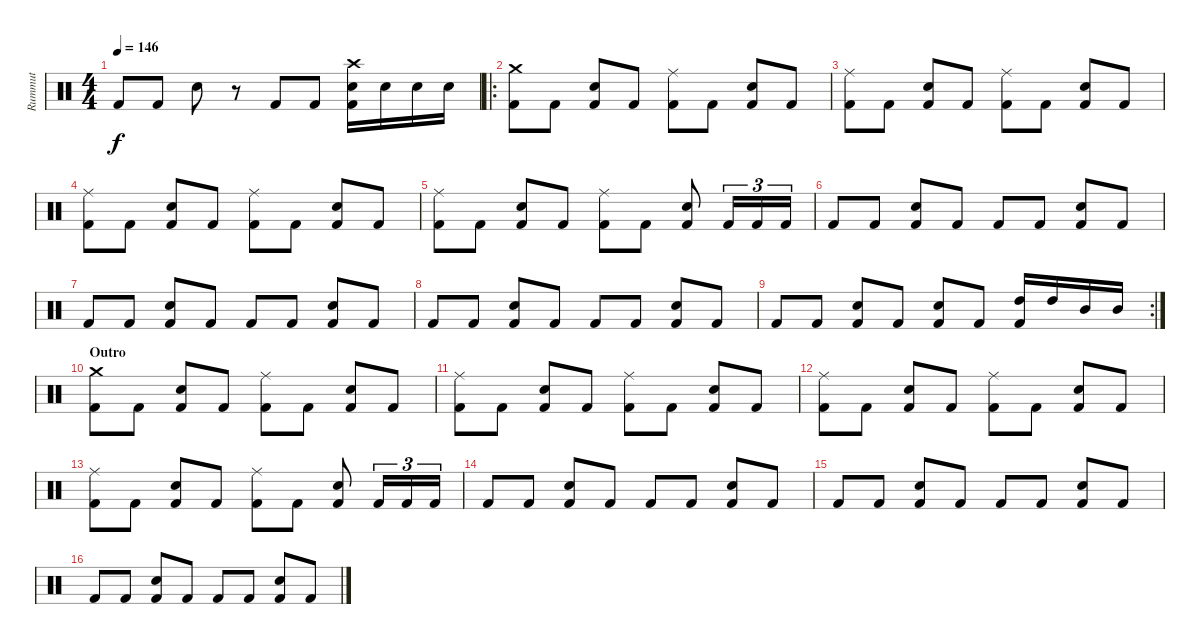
\track ("Rummut" "Rummut") {instrument percussion}
\staff {score}
\articulation defaults
\ts (4 4)
\tempo 146
\clef neutral
\ks c "Kick (hit) 2".8{dy f} "Kick (hit) 2".8 "Electric Snare (hit)".8
r.8 "Kick (hit) 2".8 "Kick (hit) 2".8 ("Crash high (hit)" "Electric Snare (hit)" "Kick (hit) 2").16 "Electric Snare (hit)".16 "Electric Snare (hit)".16 "Electric Snare (hit)".16 |
\ro
("Crash medium (hit)" "Kick (hit) 2").8 "Kick (hit) 2".8 ("Electric Snare (hit)" "Kick (hit) 2").8 "Kick (hit) 2".8 ("Ride (middle)" "Kick (hit) 2").8 "Kick (hit) 2".8 ("Electric Snare (hit)" "Kick (hit) 2").8 "Kick (hit) 2".8 |
("Ride (middle)" "Kick (hit) 2").8 "Kick (hit) 2".8 ("Electric Snare (hit)" "Kick (hit) 2").8 "Kick (hit) 2".8 ("Ride (middle)" "Kick (hit) 2").8 "Kick (hit) 2".8 ("Electric Snare (hit)" "Kick (hit) 2").8 "Kick (hit) 2".8 |
("Ride (middle)" "Kick (hit) 2").8 "Kick (hit) 2".8 ("Electric Snare (hit)" "Kick (hit) 2").8 "Kick (hit) 2".8 ("Ride (middle)" "Kick (hit) 2").8 "Kick (hit) 2".8 ("Electric Snare (hit)" "Kick (hit) 2").8 "Kick (hit) 2".8 |
("Ride (middle)" "Kick (hit) 2").8 "Kick (hit) 2".8 ("Electric Snare (hit)" "Kick (hit) 2").8 "Kick (hit) 2".8 ("Ride (middle)" "Kick (hit) 2").8 "Kick (hit) 2".8 ("Electric Snare (hit)" "Kick (hit) 2").8 "Kick (hit) 2".16{tu (3 2)} "Kick (hit) 2".16{tu (3 2)} "Kick (hit) 2".16{tu (3 2)} |
"Kick (hit) 2".8 "Kick (hit) 2".8 ("Electric Snare (hit)" "Kick (hit) 2").8 "Kick (hit) 2".8 "Kick (hit) 2".8 "Kick (hit) 2".8 ("Electric Snare (hit)" "Kick (hit) 2").8 "Kick (hit) 2".8 |
"Kick (hit) 2".8 "Kick (hit) 2".8 ("Electric Snare (hit)" "Kick (hit) 2").8 "Kick (hit) 2".8 "Kick (hit) 2".8 "Kick (hit) 2".8 ("Electric Snare (hit)" "Kick (hit) 2").8 "Kick (hit) 2".8 |
"Kick (hit) 2".8 "Kick (hit) 2".8 ("Electric Snare (hit)" "Kick (hit) 2").8 "Kick (hit) 2".8 "Kick (hit) 2".8 "Kick (hit) 2".8 ("Electric Snare (hit)" "Kick (hit) 2").8 "Kick (hit) 2".8 |
\rc 2 "Kick (hit) 2".8 "Kick (hit) 2".8
("Electric Snare (hit)" "Kick (hit) 2").8 "Kick (hit) 2".8 ("Electric Snare (hit)" "Kick (hit) 2").8 "Kick (hit) 2".8 ("High Tom (hit)" "Kick (hit) 2").16 "High Tom (hit)".16 "Mid Tom (hit)".16 "Mid Tom (hit)".16 |
\section ("" "Outro")
("Crash medium (hit)" "Kick (hit) 2").8 "Kick (hit) 2".8 ("Electric Snare (hit)" "Kick (hit) 2").8 "Kick (hit) 2".8 ("Ride (middle)" "Kick (hit) 2").8 "Kick (hit) 2".8 ("Electric Snare (hit)" "Kick (hit) 2").8 "Kick (hit) 2".8 |
("Ride (middle)" "Kick (hit) 2").8 "Kick (hit) 2".8 ("Electric Snare (hit)" "Kick (hit) 2").8 "Kick (hit) 2".8 ("Ride (middle)" "Kick (hit) 2").8 "Kick (hit) 2".8 ("Electric Snare (hit)" "Kick (hit) 2").8 "Kick (hit) 2".8 |
("Ride (middle)" "Kick (hit) 2").8 "Kick (hit) 2".8 ("Electric Snare (hit)" "Kick (hit) 2").8 "Kick (hit) 2".8 ("Ride (middle)" "Kick (hit) 2").8 "Kick (hit) 2".8 ("Electric Snare (hit)" "Kick (hit) 2").8 "Kick (hit) 2".8 |
("Ride (middle)" "Kick (hit) 2").8 "Kick (hit) 2".8 ("Electric Snare (hit)" "Kick (hit) 2").8 "Kick (hit) 2".8 ("Ride (middle)" "Kick (hit) 2").8 "Kick (hit) 2".8 ("Electric Snare (hit)" "Kick (hit) 2").8 "Kick (hit) 2".16{tu (3 2)} "Kick (hit) 2".16{tu (3 2)} "Kick (hit) 2".16{tu (3 2)} |
"Kick (hit) 2".8 "Kick (hit) 2".8 ("Electric Snare (hit)" "Kick (hit) 2").8 "Kick (hit) 2".8 "Kick (hit) 2".8 "Kick (hit) 2".8 ("Electric Snare (hit)" "Kick (hit) 2").8 "Kick (hit) 2".8 |
"Kick (hit) 2".8 "Kick (hit) 2".8 ("Electric Snare (hit)" "Kick (hit) 2").8 "Kick (hit) 2".8 "Kick (hit) 2".8 "Kick (hit) 2".8 ("Electric Snare (hit)" "Kick (hit) 2").8 "Kick (hit) 2".8 |
"Kick (hit) 2".8 "Kick (hit) 2".8 ("Electric Snare (hit)" "Kick (hit) 2").8 "Kick (hit) 2".8 "Kick (hit) 2".8 "Kick (hit) 2".8 ("Electric Snare (hit)" "Kick (hit) 2").8 "Kick (hit) 2".8
